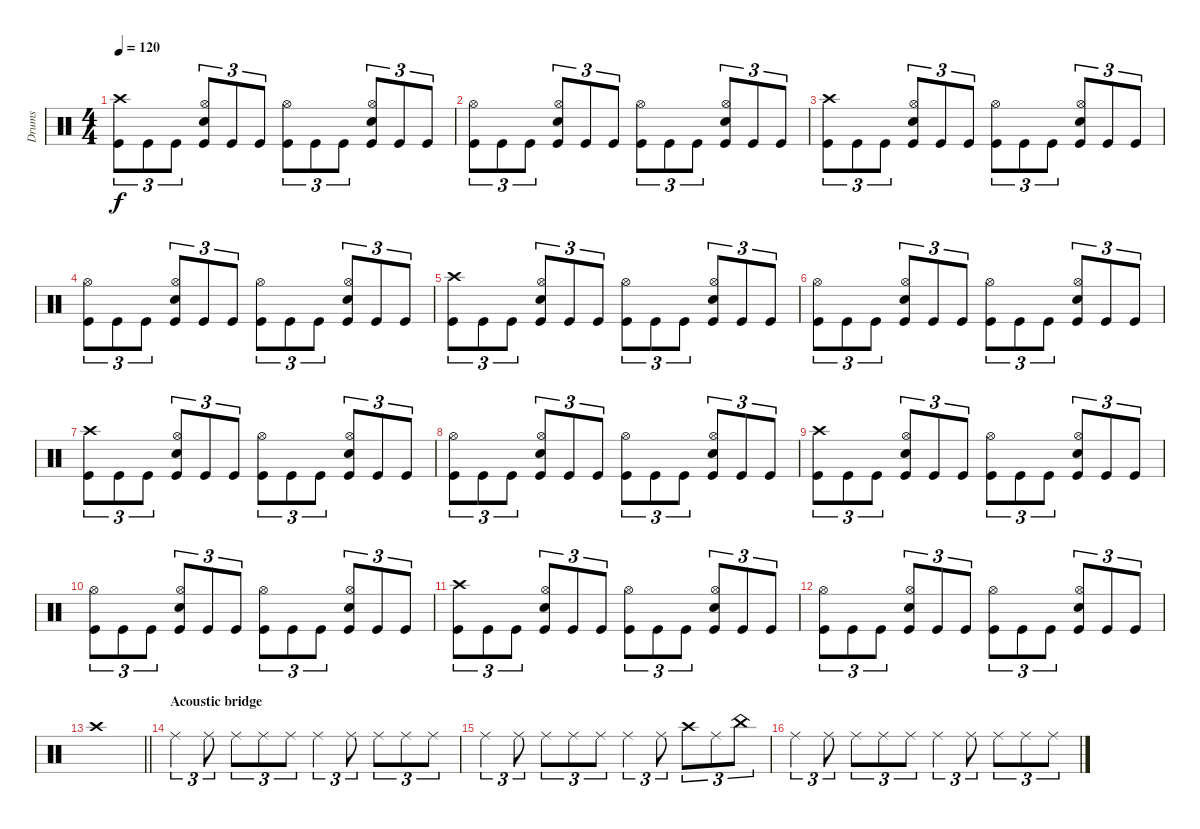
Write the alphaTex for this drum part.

\track ("Drums" "Drums") {instrument percussion}
\staff {score}
\articulation defaults
\ts (4 4)
\tempo 120
\clef neutral
\ks c
("Crash high (hit)" "Kick (hit)").8{tu (3 2) dy f} "Kick (hit)".8{tu (3 2)} "Kick (hit)".8{tu (3 2)} ("Hi-Hat (open)" "Snare (hit) 2" "Kick (hit)").8{tu (3 2)} "Kick (hit)".8{tu (3 2)} "Kick (hit)".8{tu (3 2)} ("Hi-Hat (open)" "Kick (hit)").8{tu (3 2)} "Kick (hit)".8{tu (3 2)} "Kick (hit)".8{tu (3 2)} ("Hi-Hat (open)" "Snare (hit) 2" "Kick (hit)").8{tu (3 2)} "Kick (hit)".8{tu (3 2)} "Kick (hit)".8{tu (3 2)} |
("Hi-Hat (open)" "Kick (hit)").8{tu (3 2)} "Kick (hit)".8{tu (3 2)} "Kick (hit)".8{tu (3 2)} ("Hi-Hat (open)" "Snare (hit) 2" "Kick (hit)").8{tu (3 2)} "Kick (hit)".8{tu (3 2)} "Kick (hit)".8{tu (3 2)} ("Hi-Hat (open)" "Kick (hit)").8{tu (3 2)} "Kick (hit)".8{tu (3 2)} "Kick (hit)".8{tu (3 2)} ("Hi-Hat (open)" "Snare (hit) 2" "Kick (hit)").8{tu (3 2)} "Kick (hit)".8{tu (3 2)} "Kick (hit)".8{tu (3 2)} |
("Crash high (hit)" "Kick (hit)").8{tu (3 2)} "Kick (hit)".8{tu (3 2)} "Kick (hit)".8{tu (3 2)} ("Hi-Hat (open)" "Snare (hit) 2" "Kick (hit)").8{tu (3 2)} "Kick (hit)".8{tu (3 2)} "Kick (hit)".8{tu (3 2)} ("Hi-Hat (open)" "Kick (hit)").8{tu (3 2)} "Kick (hit)".8{tu (3 2)} "Kick (hit)".8{tu (3 2)} ("Hi-Hat (open)" "Snare (hit) 2" "Kick (hit)").8{tu (3 2)} "Kick (hit)".8{tu (3 2)} "Kick (hit)".8{tu (3 2)} |
("Hi-Hat (open)" "Kick (hit)").8{tu (3 2)} "Kick (hit)".8{tu (3 2)} "Kick (hit)".8{tu (3 2)} ("Hi-Hat (open)" "Snare (hit) 2" "Kick (hit)").8{tu (3 2)} "Kick (hit)".8{tu (3 2)} "Kick (hit)".8{tu (3 2)} ("Hi-Hat (open)" "Kick (hit)").8{tu (3 2)} "Kick (hit)".8{tu (3 2)} "Kick (hit)".8{tu (3 2)} ("Hi-Hat (open)" "Snare (hit) 2" "Kick (hit)").8{tu (3 2)} "Kick (hit)".8{tu (3 2)} "Kick (hit)".8{tu (3 2)} |
("Crash high (hit)" "Kick (hit)").8{tu (3 2)} "Kick (hit)".8{tu (3 2)} "Kick (hit)".8{tu (3 2)} ("Hi-Hat (open)" "Snare (hit) 2" "Kick (hit)").8{tu (3 2)} "Kick (hit)".8{tu (3 2)} "Kick (hit)".8{tu (3 2)} ("Hi-Hat (open)" "Kick (hit)").8{tu (3 2)} "Kick (hit)".8{tu (3 2)} "Kick (hit)".8{tu (3 2)} ("Hi-Hat (open)" "Snare (hit) 2" "Kick (hit)").8{tu (3 2)} "Kick (hit)".8{tu (3 2)} "Kick (hit)".8{tu (3 2)} |
("Hi-Hat (open)" "Kick (hit)").8{tu (3 2)} "Kick (hit)".8{tu (3 2)} "Kick (hit)".8{tu (3 2)} ("Hi-Hat (open)" "Snare (hit) 2" "Kick (hit)").8{tu (3 2)} "Kick (hit)".8{tu (3 2)} "Kick (hit)".8{tu (3 2)} ("Hi-Hat (open)" "Kick (hit)").8{tu (3 2)} "Kick (hit)".8{tu (3 2)} "Kick (hit)".8{tu (3 2)} ("Hi-Hat (open)" "Snare (hit) 2" "Kick (hit)").8{tu (3 2)} "Kick (hit)".8{tu (3 2)} "Kick (hit)".8{tu (3 2)} |
("Crash high (hit)" "Kick (hit)").8{tu (3 2)} "Kick (hit)".8{tu (3 2)} "Kick (hit)".8{tu (3 2)} ("Hi-Hat (open)" "Snare (hit) 2" "Kick (hit)").8{tu (3 2)} "Kick (hit)".8{tu (3 2)} "Kick (hit)".8{tu (3 2)} ("Hi-Hat (open)" "Kick (hit)").8{tu (3 2)} "Kick (hit)".8{tu (3 2)} "Kick (hit)".8{tu (3 2)} ("Hi-Hat (open)" "Snare (hit) 2" "Kick (hit)").8{tu (3 2)} "Kick (hit)".8{tu (3 2)} "Kick (hit)".8{tu (3 2)} |
("Hi-Hat (open)" "Kick (hit)").8{tu (3 2)} "Kick (hit)".8{tu (3 2)} "Kick (hit)".8{tu (3 2)} ("Hi-Hat (open)" "Snare (hit) 2" "Kick (hit)").8{tu (3 2)} "Kick (hit)".8{tu (3 2)} "Kick (hit)".8{tu (3 2)} ("Hi-Hat (open)" "Kick (hit)").8{tu (3 2)} "Kick (hit)".8{tu (3 2)} "Kick (hit)".8{tu (3 2)} ("Hi-Hat (open)" "Snare (hit) 2" "Kick (hit)").8{tu (3 2)} "Kick (hit)".8{tu (3 2)} "Kick (hit)".8{tu (3 2)} |
("Crash high (hit)" "Kick (hit)").8{tu (3 2)} "Kick (hit)".8{tu (3 2)} "Kick (hit)".8{tu (3 2)} ("Hi-Hat (open)" "Snare (hit) 2" "Kick (hit)").8{tu (3 2)} "Kick (hit)".8{tu (3 2)} "Kick (hit)".8{tu (3 2)} ("Hi-Hat (open)" "Kick (hit)").8{tu (3 2)} "Kick (hit)".8{tu (3 2)} "Kick (hit)".8{tu (3 2)} ("Hi-Hat (open)" "Snare (hit) 2" "Kick (hit)").8{tu (3 2)} "Kick (hit)".8{tu (3 2)} "Kick (hit)".8{tu (3 2)} |
("Hi-Hat (open)" "Kick (hit)").8{tu (3 2)} "Kick (hit)".8{tu (3 2)} "Kick (hit)".8{tu (3 2)} ("Hi-Hat (open)" "Snare (hit) 2" "Kick (hit)").8{tu (3 2)} "Kick (hit)".8{tu (3 2)} "Kick (hit)".8{tu (3 2)} ("Hi-Hat (open)" "Kick (hit)").8{tu (3 2)} "Kick (hit)".8{tu (3 2)} "Kick (hit)".8{tu (3 2)} ("Hi-Hat (open)" "Snare (hit) 2" "Kick (hit)").8{tu (3 2)} "Kick (hit)".8{tu (3 2)} "Kick (hit)".8{tu (3 2)} |
("Crash high (hit)" "Kick (hit)").8{tu (3 2)} "Kick (hit)".8{tu (3 2)} "Kick (hit)".8{tu (3 2)} ("Hi-Hat (open)" "Snare (hit) 2" "Kick (hit)").8{tu (3 2)} "Kick (hit)".8{tu (3 2)} "Kick (hit)".8{tu (3 2)} ("Hi-Hat (open)" "Kick (hit)").8{tu (3 2)} "Kick (hit)".8{tu (3 2)} "Kick (hit)".8{tu (3 2)} ("Hi-Hat (open)" "Snare (hit) 2" "Kick (hit)").8{tu (3 2)} "Kick (hit)".8{tu (3 2)} "Kick (hit)".8{tu (3 2)} |
("Hi-Hat (open)" "Kick (hit)").8{tu (3 2)} "Kick (hit)".8{tu (3 2)} "Kick (hit)".8{tu (3 2)} ("Hi-Hat (open)" "Snare (hit) 2" "Kick (hit)").8{tu (3 2)} "Kick (hit)".8{tu (3 2)} "Kick (hit)".8{tu (3 2)} ("Hi-Hat (open)" "Kick (hit)").8{tu (3 2)} "Kick (hit)".8{tu (3 2)} "Kick (hit)".8{tu (3 2)} ("Hi-Hat (open)" "Snare (hit) 2" "Kick (hit)").8{tu (3 2)} "Kick (hit)".8{tu (3 2)} "Kick (hit)".8{tu (3 2)} |
\barLineRight lightlight "Crash high (hit)".1
|
\section ("" "Acoustic bridge")
"Ride (middle)".4{tu (3 2)} "Ride (middle)".8{tu (3 2)} "Ride (middle)".8{tu (3 2)} "Ride (middle)".8{tu (3 2)} "Ride (middle)".8{tu (3 2)} "Ride (middle)".4{tu (3 2)} "Ride (middle)".8{tu (3 2)} "Ride (middle)".8{tu (3 2)} "Ride (middle)".8{tu (3 2)} "Ride (middle)".8{tu (3 2)} |
"Ride (middle)".4{tu (3 2)} "Ride (middle)".8{tu (3 2)} "Ride (middle)".8{tu (3 2)} "Ride (middle)".8{tu (3 2)} "Ride (middle)".8{tu (3 2)} "Ride (middle)".4{tu (3 2)} "Ride (middle)".8{tu (3 2)} "Crash high (hit)".8{tu (3 2)} "Ride (middle)".8{tu (3 2)} "China (hit)".8{tu (3 2)} |
"Ride (middle)".4{tu (3 2)} "Ride (middle)".8{tu (3 2)} "Ride (middle)".8{tu (3 2)} "Ride (middle)".8{tu (3 2)} "Ride (middle)".8{tu (3 2)} "Ride (middle)".4{tu (3 2)} "Ride (middle)".8{tu (3 2)} "Ride (middle)".8{tu (3 2)} "Ride (middle)".8{tu (3 2)} "Ride (middle)".8{tu (3 2)}
